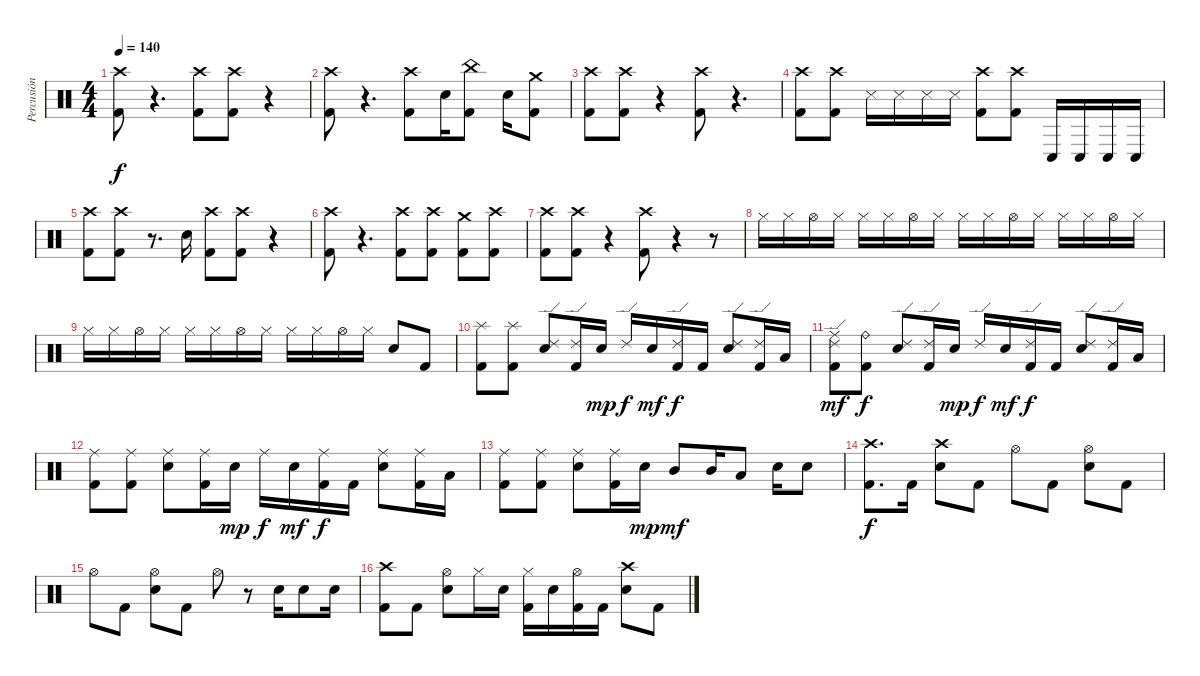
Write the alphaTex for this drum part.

\track ("Percusión" "Percusión") {instrument percussion}
\staff {score}
\articulation defaults
\ts (4 4)
\tempo 140
\clef neutral
\ks c
("Crash high (hit)" "Kick (hit) 2").8{dy f volume 15} r.4{d volume 0} ("Crash high (hit)" "Kick (hit) 2").8{volume 15} ("Crash high (hit)" "Kick (hit) 2").8 r.4{volume 0} |
("Crash high (hit)" "Kick (hit) 2").8{volume 15} r.4{d volume 0} ("Crash high (hit)" "Kick (hit) 2").8{volume 15} "Snare (hit) 2".16 ("China (hit)" "Kick (hit) 2").8 "Snare (hit) 2".16 ("Crash medium (hit)" "Kick (hit) 2").8 |
("Crash high (hit)" "Kick (hit) 2").8{volume 15} ("Crash high (hit)" "Kick (hit) 2").8 r.4{volume 0} ("Crash high (hit)" "Kick (hit) 2").8{volume 15} r.4{d volume 0} |
("Crash high (hit)" "Kick (hit) 2").8{volume 15} ("Crash high (hit)" "Kick (hit) 2").8 "Snare (side stick) 3".16 "Snare (side stick) 3".16 "Snare (side stick) 3".16 "Snare (side stick) 3".16 ("Crash high (hit)" "Kick (hit) 2").8{volume 15} ("Crash high (hit)" "Kick (hit) 2").8 "Conga low (hit)".16 "Conga low (hit)".16 "Conga low (hit)".16 "Conga low (hit)".16 |
("Crash high (hit)" "Kick (hit) 2").8{volume 15} ("Crash high (hit)" "Kick (hit) 2").8 r.8{d volume 0} "Snare (hit) 2".16{volume 15} ("Crash high (hit)" "Kick (hit) 2").8 ("Crash high (hit)" "Kick (hit) 2").8 r.4{volume 0} |
("Crash high (hit)" "Kick (hit) 2").8{volume 15} r.4{d volume 0} ("Crash high (hit)" "Kick (hit) 2").8{volume 15} ("Crash high (hit)" "Kick (hit) 2").8 ("Crash medium (hit)" "Kick (hit) 2").8{volume 15} ("Crash high (hit)" "Kick (hit) 2").8 |
("Crash high (hit)" "Kick (hit) 2").8{volume 15} ("Crash high (hit)" "Kick (hit) 2").8 r.4{volume 0} ("Crash high (hit)" "Kick (hit) 2").8{volume 15} r.4{volume 0} r.8{volume 15} |
"Hi-Hat (closed)".16 "Hi-Hat (closed)".16 "Hi-Hat (open)".16 "Hi-Hat (closed)".16 "Hi-Hat (closed)".16 "Hi-Hat (closed)".16 "Hi-Hat (open)".16 "Hi-Hat (closed)".16 "Hi-Hat (closed)".16 "Hi-Hat (closed)".16 "Hi-Hat (open)".16 "Hi-Hat (closed)".16 "Hi-Hat (closed)".16 "Hi-Hat (closed)".16 "Hi-Hat (open)".16 "Hi-Hat (closed)".16 |
"Hi-Hat (closed)".16 "Hi-Hat (closed)".16 "Hi-Hat (open)".16 "Hi-Hat (closed)".16 "Hi-Hat (closed)".16 "Hi-Hat (closed)".16 "Hi-Hat (open)".16 "Hi-Hat (closed)".16 "Hi-Hat (closed)".16 "Hi-Hat (closed)".16 "Hi-Hat (open)".16 "Hi-Hat (closed)".16 "Snare (hit) 2".8 "Kick (hit) 2".8 |
("Splash (hit)" "Kick (hit) 2").8 ("Splash (hit)" "Kick (hit) 2").8 ("Ride (edge) 2" "Electric Snare (hit)").8 ("Ride (edge) 2" "Kick (hit) 2").16 "Electric Snare (hit)".16{dy mp} "Ride (edge) 2".16{dy f} "Electric Snare (hit)".16{dy mf} ("Ride (edge) 2" "Kick (hit) 2").16{dy f} "Kick (hit) 2".16 ("Ride (edge) 2" "Electric Snare (hit)").8 ("Ride (edge) 2" "Kick (hit) 2").16 "Low Floor Tom (hit)".16 |
("Ride (edge) 2" "Ride (middle)" "Kick (hit) 2").8{dy mf} ("Ride (bell)" "Kick (hit) 2").8{dy f} ("Ride (edge) 2" "Electric Snare (hit)").8 ("Ride (edge) 2" "Kick (hit) 2").16 "Electric Snare (hit)".16{dy mp} "Ride (edge) 2".16{dy f} "Electric Snare (hit)".16{dy mf} ("Ride (edge) 2" "Kick (hit) 2").16{dy f} "Kick (hit) 2".16 ("Ride (edge) 2" "Electric Snare (hit)").8 ("Ride (edge) 2" "Kick (hit) 2").16 "Low Floor Tom (hit)".16 |
("Ride (middle)" "Kick (hit) 2").8 ("Ride (middle)" "Kick (hit) 2").8 ("Ride (middle)" "Electric Snare (hit)").8 ("Ride (middle)" "Kick (hit) 2").16 "Electric Snare (hit)".16{dy mp} "Ride (middle)".16{dy f} "Electric Snare (hit)".16{dy mf} ("Ride (middle)" "Kick (hit) 2").16{dy f} "Kick (hit) 2".16 ("Ride (middle)" "Electric Snare (hit)").8 ("Ride (middle)" "Kick (hit) 2").16 "Low Floor Tom (hit)".16 |
("Ride (middle)" "Kick (hit) 2").8 ("Ride (middle)" "Kick (hit) 2").8 ("Ride (middle)" "Electric Snare (hit)").8 ("Ride (middle)" "Kick (hit) 2").16 "Electric Snare (hit)".16{dy mp} "Mid Tom (hit)".8{dy mf} "Mid Tom (hit)".16 "Low Tom (hit)".8 "Snare (hit) 2".16 "Snare (hit) 2".8 |
("Crash high (hit)" "Kick (hit) 2").8{d dy f} "Kick (hit) 2".16 ("Crash high (hit)" "Snare (hit) 2").8 "Kick (hit) 2".8 "Hi-Hat (open)".8 "Kick (hit) 2".8 ("Hi-Hat (open)" "Snare (hit) 2").8 "Kick (hit) 2".8 |
"Hi-Hat (open)".8 "Kick (hit) 2".8 ("Hi-Hat (open)" "Snare (hit) 2").8 "Kick (hit) 2".8 "Hi-Hat (open)".8 r.8 "Snare (hit) 2".16 "Snare (hit) 2".8 "Snare (hit) 2".16 |
("Crash high (hit)" "Kick (hit) 2").8 "Kick (hit) 2".8 ("Hi-Hat (open)" "Snare (hit) 2").8 "Hi-Hat (closed)".16 "Snare (hit) 2".16 ("Hi-Hat (closed)" "Kick (hit) 2").16 "Snare (hit) 2".16 ("Hi-Hat (open)" "Kick (hit) 2").16 "Kick (hit) 2".16 ("Crash high (hit)" "Snare (hit) 2").8 "Kick (hit) 2".8
